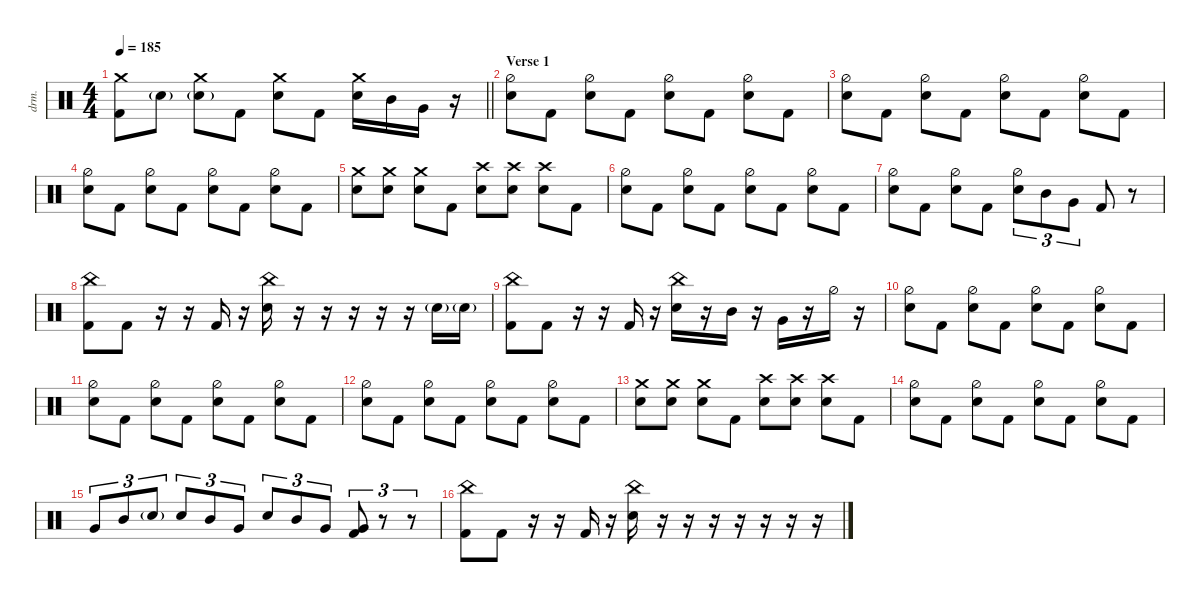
\defaultSystemsLayout 4
\hideDynamics
\bracketExtendMode nobrackets
\track ("Drums - Šimon" "drm.") {instrument percussion}
\staff {score}
\articulation defaults
\ts (4 4)
\tempo 185
\clef neutral
\barLineRight lightlight
\ks c
("Kick (hit) 2" "Crash medium (hit)").8{dy ff} "Snare (hit) 2"{g}.8 ("Snare (hit) 2"{g} "Crash medium (hit)").8 "Kick (hit) 2".8 ("Snare (hit) 2" "Crash medium (hit)").8 "Kick (hit) 2".8 ("Snare (hit) 2" "Crash medium (hit)").16 "Mid Tom (hit)".16 "Very Low Tom (hit)".16 r.16 |
\section ("" "Verse 1")
("Snare (hit) 2" "Hi-Hat (half)").8 "Kick (hit) 2".8 ("Snare (hit) 2" "Hi-Hat (half)").8 "Kick (hit) 2".8 ("Snare (hit) 2" "Hi-Hat (half)").8 "Kick (hit) 2".8 ("Snare (hit) 2" "Hi-Hat (half)").8 "Kick (hit) 2".8 |
("Snare (hit) 2" "Hi-Hat (half)").8 "Kick (hit) 2".8 ("Snare (hit) 2" "Hi-Hat (half)").8 "Kick (hit) 2".8 ("Snare (hit) 2" "Hi-Hat (half)").8 "Kick (hit) 2".8 ("Snare (hit) 2" "Hi-Hat (half)").8 "Kick (hit) 2".8 |
("Snare (hit) 2" "Hi-Hat (half)").8 "Kick (hit) 2".8 ("Snare (hit) 2" "Hi-Hat (half)").8 "Kick (hit) 2".8 ("Snare (hit) 2" "Hi-Hat (half)").8 "Kick (hit) 2".8 ("Snare (hit) 2" "Hi-Hat (half)").8 "Kick (hit) 2".8 |
("Snare (hit) 2" "Crash medium (hit)").8 ("Snare (hit) 2" "Crash medium (hit)").8 ("Snare (hit) 2" "Crash medium (hit)").8 "Kick (hit) 2".8 ("Snare (hit) 2" "Crash high (hit)").8 ("Snare (hit) 2" "Crash high (hit)").8 ("Snare (hit) 2" "Crash high (hit)").8 "Kick (hit) 2".8 |
("Snare (hit) 2" "Hi-Hat (half)").8 "Kick (hit) 2".8 ("Snare (hit) 2" "Hi-Hat (half)").8 "Kick (hit) 2".8 ("Snare (hit) 2" "Hi-Hat (half)").8 "Kick (hit) 2".8 ("Snare (hit) 2" "Hi-Hat (half)").8 "Kick (hit) 2".8 |
("Snare (hit) 2" "Hi-Hat (half)").8 "Kick (hit) 2".8 ("Snare (hit) 2" "Hi-Hat (half)").8 "Kick (hit) 2".8 ("Hi-Hat (half)" "Snare (hit) 2").8{tu (3 2)} "Mid Tom (hit)".8{tu (3 2)} "Very Low Tom (hit)".8{tu (3 2)} "Kick (hit) 2".8 r.8 |
("China (hit)" "Kick (hit) 2").8 "Kick (hit) 2".8 r.16 r.16 "Kick (hit) 2".16 r.16 ("Snare (hit) 2" "China (hit)").16 r.16 r.16 r.16 r.16 r.16 "Snare (hit) 2"{g}.16 "Snare (hit) 2"{g}.16 |
("China (hit)" "Kick (hit) 2").8 "Kick (hit) 2".8 r.16 r.16 "Kick (hit) 2".16 r.16 ("Snare (hit) 2" "China (hit)").16 r.16 "Mid Tom (hit)".16 r.16 "Very Low Tom (hit)".16 r.16 "Hi-Hat (half)".16 r.16 |
("Snare (hit) 2" "Hi-Hat (half)").8 "Kick (hit) 2".8 ("Snare (hit) 2" "Hi-Hat (half)").8 "Kick (hit) 2".8 ("Snare (hit) 2" "Hi-Hat (half)").8 "Kick (hit) 2".8 ("Snare (hit) 2" "Hi-Hat (half)").8 "Kick (hit) 2".8 |
("Snare (hit) 2" "Hi-Hat (half)").8 "Kick (hit) 2".8 ("Snare (hit) 2" "Hi-Hat (half)").8 "Kick (hit) 2".8 ("Snare (hit) 2" "Hi-Hat (half)").8 "Kick (hit) 2".8 ("Snare (hit) 2" "Hi-Hat (half)").8 "Kick (hit) 2".8 |
("Snare (hit) 2" "Hi-Hat (half)").8 "Kick (hit) 2".8 ("Snare (hit) 2" "Hi-Hat (half)").8 "Kick (hit) 2".8 ("Snare (hit) 2" "Hi-Hat (half)").8 "Kick (hit) 2".8 ("Snare (hit) 2" "Hi-Hat (half)").8 "Kick (hit) 2".8 |
("Snare (hit) 2" "Crash medium (hit)").8 ("Snare (hit) 2" "Crash medium (hit)").8 ("Snare (hit) 2" "Crash medium (hit)").8 "Kick (hit) 2".8 ("Snare (hit) 2" "Crash high (hit)").8 ("Snare (hit) 2" "Crash high (hit)").8 ("Snare (hit) 2" "Crash high (hit)").8 "Kick (hit) 2".8 |
("Snare (hit) 2" "Hi-Hat (half)").8 "Kick (hit) 2".8 ("Snare (hit) 2" "Hi-Hat (half)").8 "Kick (hit) 2".8 ("Snare (hit) 2" "Hi-Hat (half)").8 "Kick (hit) 2".8 ("Snare (hit) 2" "Hi-Hat (half)").8 "Kick (hit) 2".8 |
"Very Low Tom (hit)".8{tu (3 2)} "Mid Tom (hit)".8{tu (3 2)} "Snare (hit) 2"{g}.8{tu (3 2)} "Snare (hit) 2".8{tu (3 2)} "Mid Tom (hit)".8{tu (3 2)} "Very Low Tom (hit)".8{tu (3 2)} "Snare (hit) 2".8{tu (3 2)} "Mid Tom (hit)".8{tu (3 2)} "Very Low Tom (hit)".8{tu (3 2)} ("Kick (hit) 2" "Very Low Tom (hit)").8{tu (3 2)} r.8{tu (3 2)} r.8{tu (3 2)} |
("China (hit)" "Kick (hit) 2").8 "Kick (hit) 2".8 r.16 r.16 "Kick (hit) 2".16 r.16 ("Snare (hit) 2" "China (hit)").16 r.16 r.16 r.16 r.16 r.16 r.16 r.16
